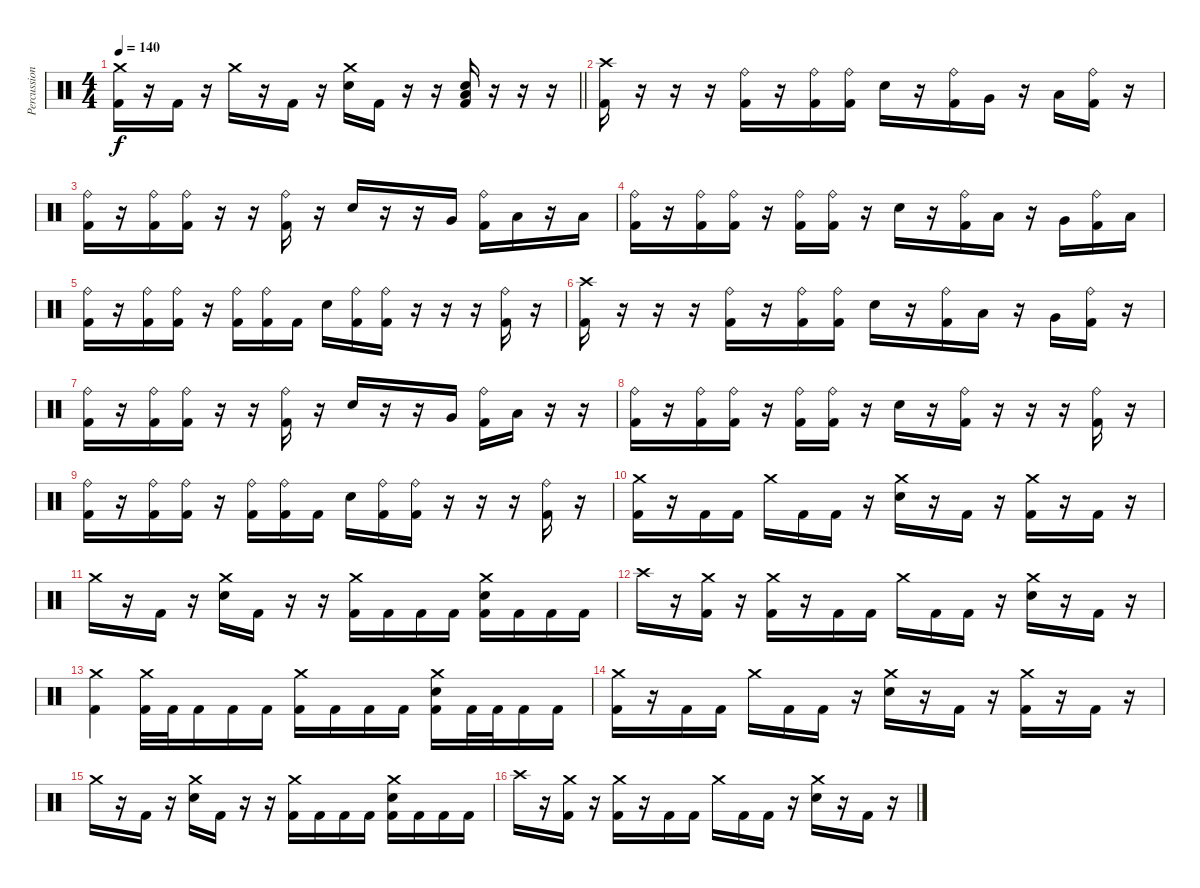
\track ("Percussion" "Percussion") {instrument percussion}
\staff {score}
\articulation defaults
\ts (4 4)
\tempo 140
\clef neutral
\barLineRight lightlight
\ks c
("Crash medium (hit)" "Kick (hit) 2").16{dy f} r.16 "Kick (hit) 2".16 r.16 "Crash medium (hit)".16 r.16 "Kick (hit) 2".16 r.16 ("Crash medium (hit)" "Snare (hit) 2").16 "Kick (hit) 2".16 r.16 r.16 ("Low Floor Tom (hit)" "Snare (hit) 2" "Kick (hit) 2").16 r.16 r.16 r.16 |
("Crash high (hit)" "Kick (hit) 2").16 r.16 r.16 r.16 ("Ride (bell)" "Kick (hit) 2").16 r.16 ("Ride (bell)" "Kick (hit) 2").16 ("Ride (bell)" "Kick (hit) 2").16 "Snare (hit) 2".16 r.16 ("Ride (bell)" "Kick (hit) 2").16 "Very Low Tom (hit)".16 r.16 "Low Floor Tom (hit)".16 ("Ride (bell)" "Kick (hit) 2").16 r.16 |
("Ride (bell)" "Kick (hit) 2").16 r.16 ("Ride (bell)" "Kick (hit) 2").16 ("Ride (bell)" "Kick (hit) 2").16 r.16 r.16 ("Ride (bell)" "Kick (hit) 2").16 r.16 "Snare (hit) 2".16 r.16 r.16 "Very Low Tom (hit)".16 ("Ride (bell)" "Kick (hit) 2").16 "Low Floor Tom (hit)".16 r.16 "Low Floor Tom (hit)".16 |
("Ride (bell)" "Kick (hit) 2").16 r.16 ("Ride (bell)" "Kick (hit) 2").16 ("Ride (bell)" "Kick (hit) 2").16 r.16 ("Ride (bell)" "Kick (hit) 2").16 ("Ride (bell)" "Kick (hit) 2").16 r.16 "Snare (hit) 2".16 r.16 ("Ride (bell)" "Kick (hit) 2").16 "Low Tom (hit)".16 r.16 "Very Low Tom (hit)".16 ("Ride (bell)" "Kick (hit) 2").16 "Low Floor Tom (hit)".16 |
("Ride (bell)" "Kick (hit) 2").16 r.16 ("Ride (bell)" "Kick (hit) 2").16 ("Ride (bell)" "Kick (hit) 2").16 r.16 ("Ride (bell)" "Kick (hit) 2").16 ("Ride (bell)" "Kick (hit) 2").16 "Kick (hit) 2".16 "Snare (hit) 2".16 ("Ride (bell)" "Kick (hit) 2").16 ("Ride (bell)" "Kick (hit) 2").16 r.16 r.16 r.16 ("Ride (bell)" "Kick (hit) 2").16 r.16 |
("Crash high (hit)" "Kick (hit) 2").16 r.16 r.16 r.16 ("Ride (bell)" "Kick (hit) 2").16 r.16 ("Ride (bell)" "Kick (hit) 2").16 ("Ride (bell)" "Kick (hit) 2").16 "Snare (hit) 2".16 r.16 ("Ride (bell)" "Kick (hit) 2").16 "Low Tom (hit)".16 r.16 "Very Low Tom (hit)".16 ("Ride (bell)" "Kick (hit) 2").16 r.16 |
("Ride (bell)" "Kick (hit) 2").16 r.16 ("Ride (bell)" "Kick (hit) 2").16 ("Ride (bell)" "Kick (hit) 2").16 r.16 r.16 ("Ride (bell)" "Kick (hit) 2").16 r.16 "Snare (hit) 2".16 r.16 r.16 "Very Low Tom (hit)".16 ("Ride (bell)" "Kick (hit) 2").16 "Low Floor Tom (hit)".16 r.16 r.16 |
("Ride (bell)" "Kick (hit) 2").16 r.16 ("Ride (bell)" "Kick (hit) 2").16 ("Ride (bell)" "Kick (hit) 2").16 r.16 ("Ride (bell)" "Kick (hit) 2").16 ("Ride (bell)" "Kick (hit) 2").16 r.16 "Snare (hit) 2".16 r.16 ("Ride (bell)" "Kick (hit) 2").16 r.16 r.16 r.16 ("Ride (bell)" "Kick (hit) 2").16 r.16 |
("Ride (bell)" "Kick (hit) 2").16 r.16 ("Ride (bell)" "Kick (hit) 2").16 ("Ride (bell)" "Kick (hit) 2").16 r.16 ("Ride (bell)" "Kick (hit) 2").16 ("Ride (bell)" "Kick (hit) 2").16 "Kick (hit) 2".16 "Snare (hit) 2".16 ("Ride (bell)" "Kick (hit) 2").16 ("Ride (bell)" "Kick (hit) 2").16 r.16 r.16 r.16 ("Ride (bell)" "Kick (hit) 2").16 r.16 |
("Crash medium (hit)" "Kick (hit) 2").16 r.16 "Kick (hit) 2".16 "Kick (hit) 2".16 "Crash medium (hit)".16 "Kick (hit) 2".16 "Kick (hit) 2".16 r.16 ("Crash medium (hit)" "Snare (hit) 2").16 r.16 "Kick (hit) 2".16 r.16 ("Crash medium (hit)" "Kick (hit) 2").16 r.16 "Kick (hit) 2".16 r.16 |
"Crash medium (hit)".16 r.16 "Kick (hit) 2".16 r.16 ("Crash medium (hit)" "Snare (hit) 2").16 "Kick (hit) 2".16 r.16 r.16 ("Crash medium (hit)" "Kick (hit) 2").16 "Kick (hit) 2".16 "Kick (hit) 2".16 "Kick (hit) 2".16 ("Crash medium (hit)" "Snare (hit) 2" "Kick (hit) 2").16 "Kick (hit) 2".16 "Kick (hit) 2".16 "Kick (hit) 2".16 |
"Crash high (hit)".16 r.16 ("Crash medium (hit)" "Kick (hit) 2").16 r.16 ("Crash medium (hit)" "Kick (hit) 2").16 r.16 "Kick (hit) 2".16 "Kick (hit) 2".16 "Crash medium (hit)".16 "Kick (hit) 2".16 "Kick (hit) 2".16 r.16 ("Crash medium (hit)" "Snare (hit) 2").16 r.16 "Kick (hit) 2".16 r.16 |
("Crash medium (hit)" "Kick (hit) 2").4 ("Crash medium (hit)" "Kick (hit) 2").32 "Kick (hit) 2".32 "Kick (hit) 2".16 "Kick (hit) 2".16 "Kick (hit) 2".16 ("Crash medium (hit)" "Kick (hit) 2").16 "Kick (hit) 2".16 "Kick (hit) 2".16 "Kick (hit) 2".16 ("Crash medium (hit)" "Snare (hit) 2" "Kick (hit) 2").16 "Kick (hit) 2".32 "Kick (hit) 2".32 "Kick (hit) 2".16 "Kick (hit) 2".16 |
("Crash medium (hit)" "Kick (hit) 2").16 r.16 "Kick (hit) 2".16 "Kick (hit) 2".16 "Crash medium (hit)".16 "Kick (hit) 2".16 "Kick (hit) 2".16 r.16 ("Crash medium (hit)" "Snare (hit) 2").16 r.16 "Kick (hit) 2".16 r.16 ("Crash medium (hit)" "Kick (hit) 2").16 r.16 "Kick (hit) 2".16 r.16 |
"Crash medium (hit)".16 r.16 "Kick (hit) 2".16 r.16 ("Crash medium (hit)" "Snare (hit) 2").16 "Kick (hit) 2".16 r.16 r.16 ("Crash medium (hit)" "Kick (hit) 2").16 "Kick (hit) 2".16 "Kick (hit) 2".16 "Kick (hit) 2".16 ("Crash medium (hit)" "Snare (hit) 2" "Kick (hit) 2").16 "Kick (hit) 2".16 "Kick (hit) 2".16 "Kick (hit) 2".16 |
"Crash high (hit)".16 r.16 ("Crash medium (hit)" "Kick (hit) 2").16 r.16 ("Crash medium (hit)" "Kick (hit) 2").16 r.16 "Kick (hit) 2".16 "Kick (hit) 2".16 "Crash medium (hit)".16 "Kick (hit) 2".16 "Kick (hit) 2".16 r.16 ("Crash medium (hit)" "Snare (hit) 2").16 r.16 "Kick (hit) 2".16 r.16
